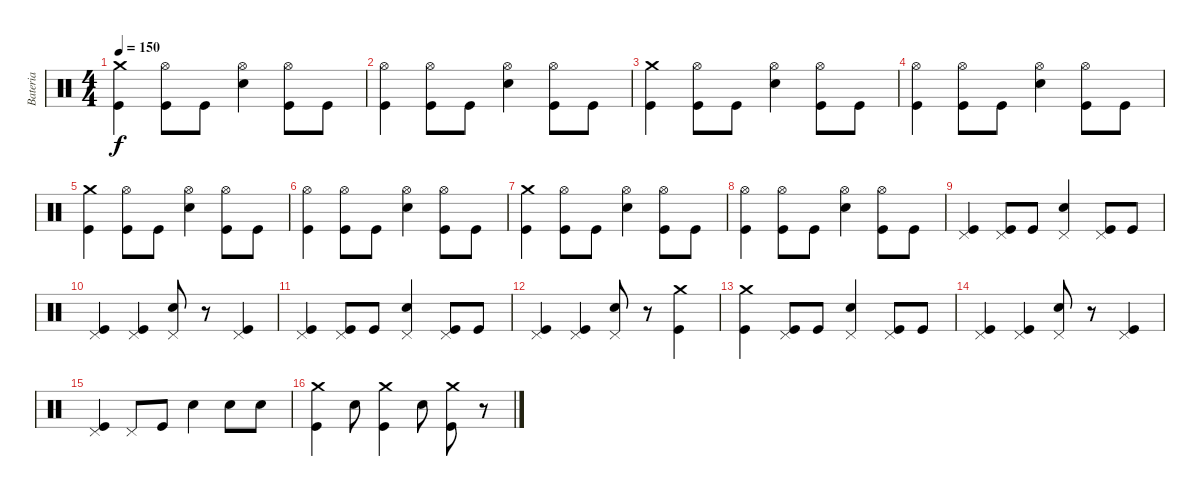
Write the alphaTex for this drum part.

\track ("Bateria" "Bateria") {instrument percussion}
\staff {score}
\articulation defaults
\ts (4 4)
\tempo 150
\clef neutral
\ks c
("Crash medium (hit)" "Kick (hit)").4{dy f} ("Hi-Hat (open)" "Kick (hit)").8 "Kick (hit)".8 ("Hi-Hat (open)" "Snare (hit) 2").4 ("Hi-Hat (open)" "Kick (hit)").8 "Kick (hit)".8 |
("Hi-Hat (open)" "Kick (hit)").4 ("Hi-Hat (open)" "Kick (hit)").8 "Kick (hit)".8 ("Hi-Hat (open)" "Snare (hit) 2").4 ("Hi-Hat (open)" "Kick (hit)").8 "Kick (hit)".8 |
("Crash medium (hit)" "Kick (hit)").4 ("Hi-Hat (open)" "Kick (hit)").8 "Kick (hit)".8 ("Hi-Hat (open)" "Snare (hit) 2").4 ("Hi-Hat (open)" "Kick (hit)").8 "Kick (hit)".8 |
("Hi-Hat (open)" "Kick (hit)").4 ("Hi-Hat (open)" "Kick (hit)").8 "Kick (hit)".8 ("Hi-Hat (open)" "Snare (hit) 2").4 ("Hi-Hat (open)" "Kick (hit)").8 "Kick (hit)".8 |
("Crash medium (hit)" "Kick (hit)").4 ("Hi-Hat (open)" "Kick (hit)").8 "Kick (hit)".8 ("Hi-Hat (open)" "Snare (hit) 2").4 ("Hi-Hat (open)" "Kick (hit)").8 "Kick (hit)".8 |
("Hi-Hat (open)" "Kick (hit)").4 ("Hi-Hat (open)" "Kick (hit)").8 "Kick (hit)".8 ("Hi-Hat (open)" "Snare (hit) 2").4 ("Hi-Hat (open)" "Kick (hit)").8 "Kick (hit)".8 |
("Crash medium (hit)" "Kick (hit)").4 ("Hi-Hat (open)" "Kick (hit)").8 "Kick (hit)".8 ("Hi-Hat (open)" "Snare (hit) 2").4 ("Hi-Hat (open)" "Kick (hit)").8 "Kick (hit)".8 |
("Hi-Hat (open)" "Kick (hit)").4 ("Hi-Hat (open)" "Kick (hit)").8 "Kick (hit)".8 ("Hi-Hat (open)" "Snare (hit) 2").4 ("Hi-Hat (open)" "Kick (hit)").8 "Kick (hit)".8 |
("Pedal Hi-Hat (hit)" "Kick (hit)").4 ("Pedal Hi-Hat (hit)" "Kick (hit)").8 "Kick (hit)".8 ("Pedal Hi-Hat (hit)" "Snare (hit) 2").4 ("Pedal Hi-Hat (hit)" "Kick (hit)").8 "Kick (hit)".8 |
("Pedal Hi-Hat (hit)" "Kick (hit)").4 ("Pedal Hi-Hat (hit)" "Kick (hit)").4 ("Pedal Hi-Hat (hit)" "Snare (hit) 2").8 r.8 ("Pedal Hi-Hat (hit)" "Kick (hit)").4 |
("Pedal Hi-Hat (hit)" "Kick (hit)").4 ("Pedal Hi-Hat (hit)" "Kick (hit)").8 "Kick (hit)".8 ("Pedal Hi-Hat (hit)" "Snare (hit) 2").4 ("Pedal Hi-Hat (hit)" "Kick (hit)").8 "Kick (hit)".8 |
("Pedal Hi-Hat (hit)" "Kick (hit)").4 ("Pedal Hi-Hat (hit)" "Kick (hit)").4 ("Pedal Hi-Hat (hit)" "Snare (hit) 2").8 r.8 ("Crash medium (hit)" "Kick (hit)").4 |
("Crash medium (hit)" "Kick (hit)").4 ("Pedal Hi-Hat (hit)" "Kick (hit)").8 "Kick (hit)".8 ("Pedal Hi-Hat (hit)" "Snare (hit) 2").4 ("Pedal Hi-Hat (hit)" "Kick (hit)").8 "Kick (hit)".8 |
("Pedal Hi-Hat (hit)" "Kick (hit)").4 ("Pedal Hi-Hat (hit)" "Kick (hit)").4 ("Pedal Hi-Hat (hit)" "Snare (hit) 2").8 r.8 ("Pedal Hi-Hat (hit)" "Kick (hit)").4 |
("Pedal Hi-Hat (hit)" "Kick (hit)").4 "Pedal Hi-Hat (hit)".8 "Kick (hit)".8 "Snare (hit) 2".4 "Snare (hit) 2".8 "Snare (hit) 2".8 |
("Crash medium (hit)" "Kick (hit)").4 "Snare (hit) 2".8 ("Crash medium (hit)" "Kick (hit)").4 "Snare (hit) 2".8 ("Crash medium (hit)" "Kick (hit)").8 r.8
